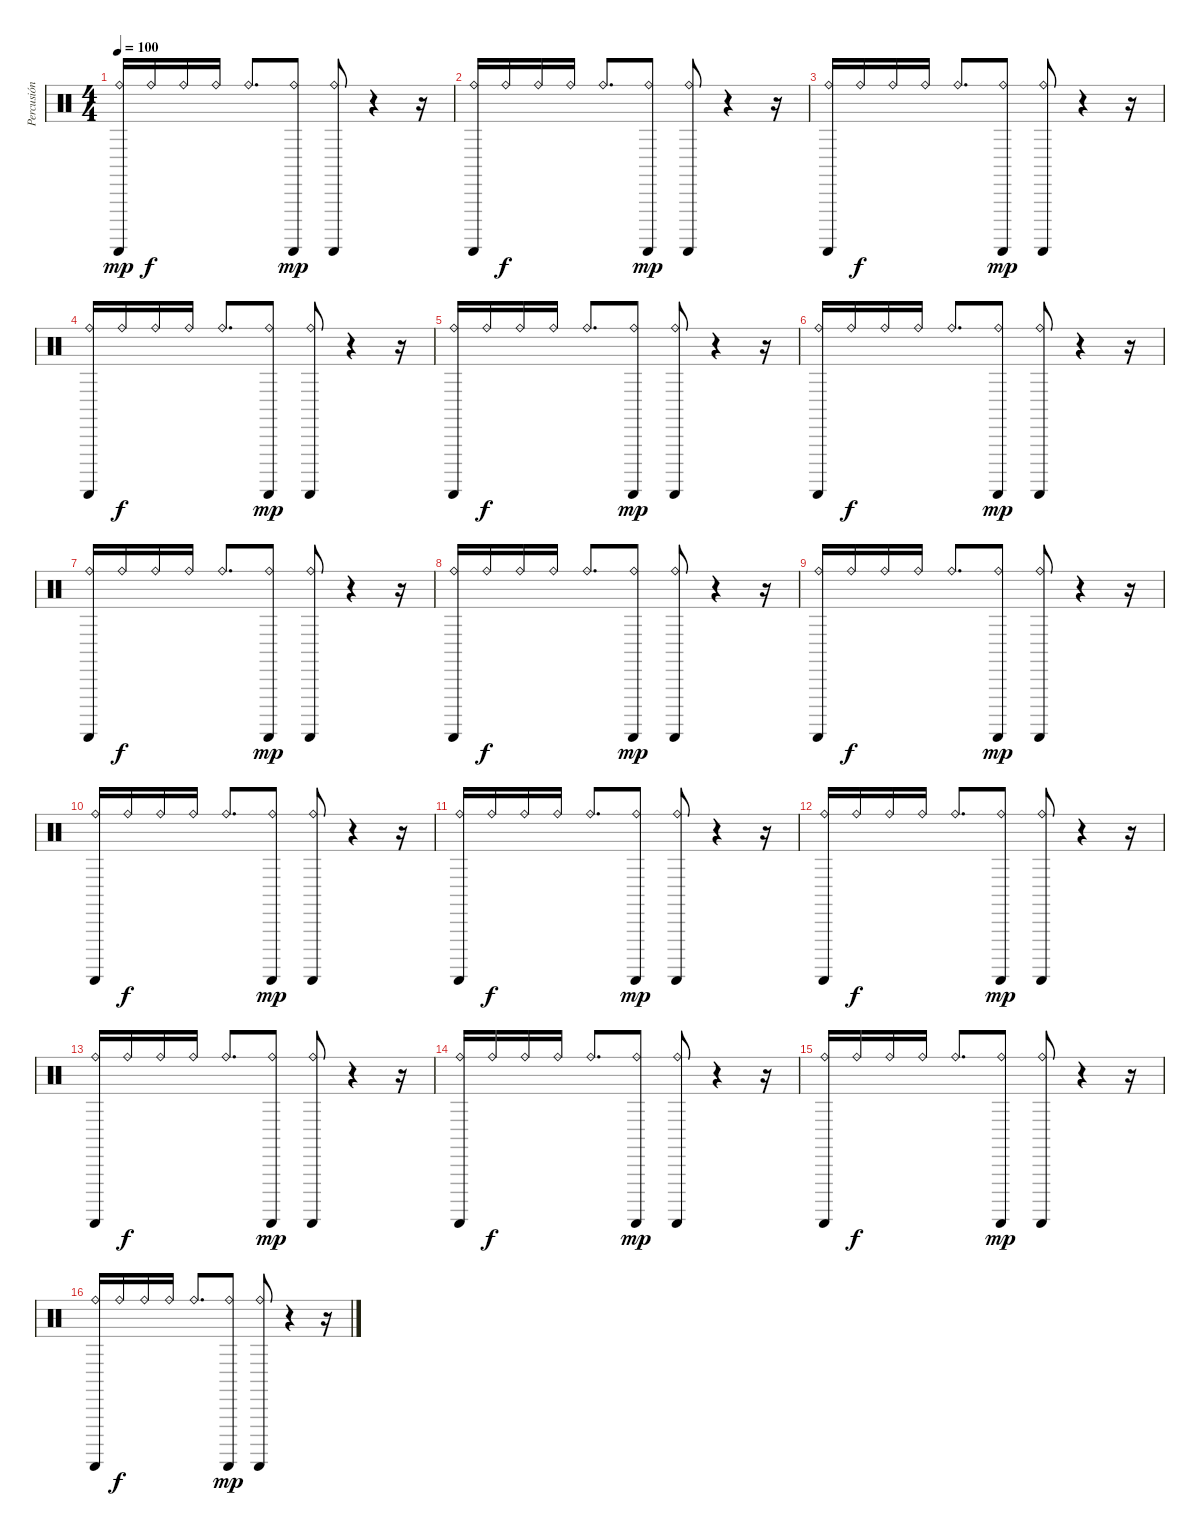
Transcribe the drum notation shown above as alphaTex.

\track ("Percusión" "Percusión") {instrument percussion}
\staff {score}
\articulation defaults
\ts (4 4)
\tempo 100
\clef neutral
\ks c
("Ride (bell)" "Guiro (scrap-return)").16{dy mp} "Ride (bell)".16{dy f} "Ride (bell)".16 "Ride (bell)".16 "Ride (bell)".8{d} ("Ride (bell)" "Guiro (scrap-return)").8{dy mp} ("Ride (bell)" "Guiro (scrap-return)").8 r.4 r.16 |
("Ride (bell)" "Guiro (scrap-return)").16 "Ride (bell)".16{dy f} "Ride (bell)".16 "Ride (bell)".16 "Ride (bell)".8{d} ("Ride (bell)" "Guiro (scrap-return)").8{dy mp} ("Ride (bell)" "Guiro (scrap-return)").8 r.4 r.16 |
("Ride (bell)" "Guiro (scrap-return)").16 "Ride (bell)".16{dy f} "Ride (bell)".16 "Ride (bell)".16 "Ride (bell)".8{d} ("Ride (bell)" "Guiro (scrap-return)").8{dy mp} ("Ride (bell)" "Guiro (scrap-return)").8 r.4 r.16 |
("Ride (bell)" "Guiro (scrap-return)").16 "Ride (bell)".16{dy f} "Ride (bell)".16 "Ride (bell)".16 "Ride (bell)".8{d} ("Ride (bell)" "Guiro (scrap-return)").8{dy mp} ("Ride (bell)" "Guiro (scrap-return)").8 r.4 r.16 |
("Ride (bell)" "Guiro (scrap-return)").16 "Ride (bell)".16{dy f} "Ride (bell)".16 "Ride (bell)".16 "Ride (bell)".8{d} ("Ride (bell)" "Guiro (scrap-return)").8{dy mp} ("Ride (bell)" "Guiro (scrap-return)").8 r.4 r.16 |
("Ride (bell)" "Guiro (scrap-return)").16 "Ride (bell)".16{dy f} "Ride (bell)".16 "Ride (bell)".16 "Ride (bell)".8{d} ("Ride (bell)" "Guiro (scrap-return)").8{dy mp} ("Ride (bell)" "Guiro (scrap-return)").8 r.4 r.16 |
("Ride (bell)" "Guiro (scrap-return)").16 "Ride (bell)".16{dy f} "Ride (bell)".16 "Ride (bell)".16 "Ride (bell)".8{d} ("Ride (bell)" "Guiro (scrap-return)").8{dy mp} ("Ride (bell)" "Guiro (scrap-return)").8 r.4 r.16 |
("Ride (bell)" "Guiro (scrap-return)").16 "Ride (bell)".16{dy f} "Ride (bell)".16 "Ride (bell)".16 "Ride (bell)".8{d} ("Ride (bell)" "Guiro (scrap-return)").8{dy mp} ("Ride (bell)" "Guiro (scrap-return)").8 r.4 r.16 |
("Ride (bell)" "Guiro (scrap-return)").16 "Ride (bell)".16{dy f} "Ride (bell)".16 "Ride (bell)".16 "Ride (bell)".8{d} ("Ride (bell)" "Guiro (scrap-return)").8{dy mp} ("Ride (bell)" "Guiro (scrap-return)").8 r.4 r.16 |
("Ride (bell)" "Guiro (scrap-return)").16 "Ride (bell)".16{dy f} "Ride (bell)".16 "Ride (bell)".16 "Ride (bell)".8{d} ("Ride (bell)" "Guiro (scrap-return)").8{dy mp} ("Ride (bell)" "Guiro (scrap-return)").8 r.4 r.16 |
("Ride (bell)" "Guiro (scrap-return)").16 "Ride (bell)".16{dy f} "Ride (bell)".16 "Ride (bell)".16 "Ride (bell)".8{d} ("Ride (bell)" "Guiro (scrap-return)").8{dy mp} ("Ride (bell)" "Guiro (scrap-return)").8 r.4 r.16 |
("Ride (bell)" "Guiro (scrap-return)").16 "Ride (bell)".16{dy f} "Ride (bell)".16 "Ride (bell)".16 "Ride (bell)".8{d} ("Ride (bell)" "Guiro (scrap-return)").8{dy mp} ("Ride (bell)" "Guiro (scrap-return)").8 r.4 r.16 |
("Ride (bell)" "Guiro (scrap-return)").16 "Ride (bell)".16{dy f} "Ride (bell)".16 "Ride (bell)".16 "Ride (bell)".8{d} ("Ride (bell)" "Guiro (scrap-return)").8{dy mp} ("Ride (bell)" "Guiro (scrap-return)").8 r.4 r.16 |
("Ride (bell)" "Guiro (scrap-return)").16 "Ride (bell)".16{dy f} "Ride (bell)".16 "Ride (bell)".16 "Ride (bell)".8{d} ("Ride (bell)" "Guiro (scrap-return)").8{dy mp} ("Ride (bell)" "Guiro (scrap-return)").8 r.4 r.16 |
("Ride (bell)" "Guiro (scrap-return)").16 "Ride (bell)".16{dy f} "Ride (bell)".16 "Ride (bell)".16 "Ride (bell)".8{d} ("Ride (bell)" "Guiro (scrap-return)").8{dy mp} ("Ride (bell)" "Guiro (scrap-return)").8 r.4 r.16 |
("Ride (bell)" "Guiro (scrap-return)").16 "Ride (bell)".16{dy f} "Ride (bell)".16 "Ride (bell)".16 "Ride (bell)".8{d} ("Ride (bell)" "Guiro (scrap-return)").8{dy mp} ("Ride (bell)" "Guiro (scrap-return)").8 r.4 r.16
